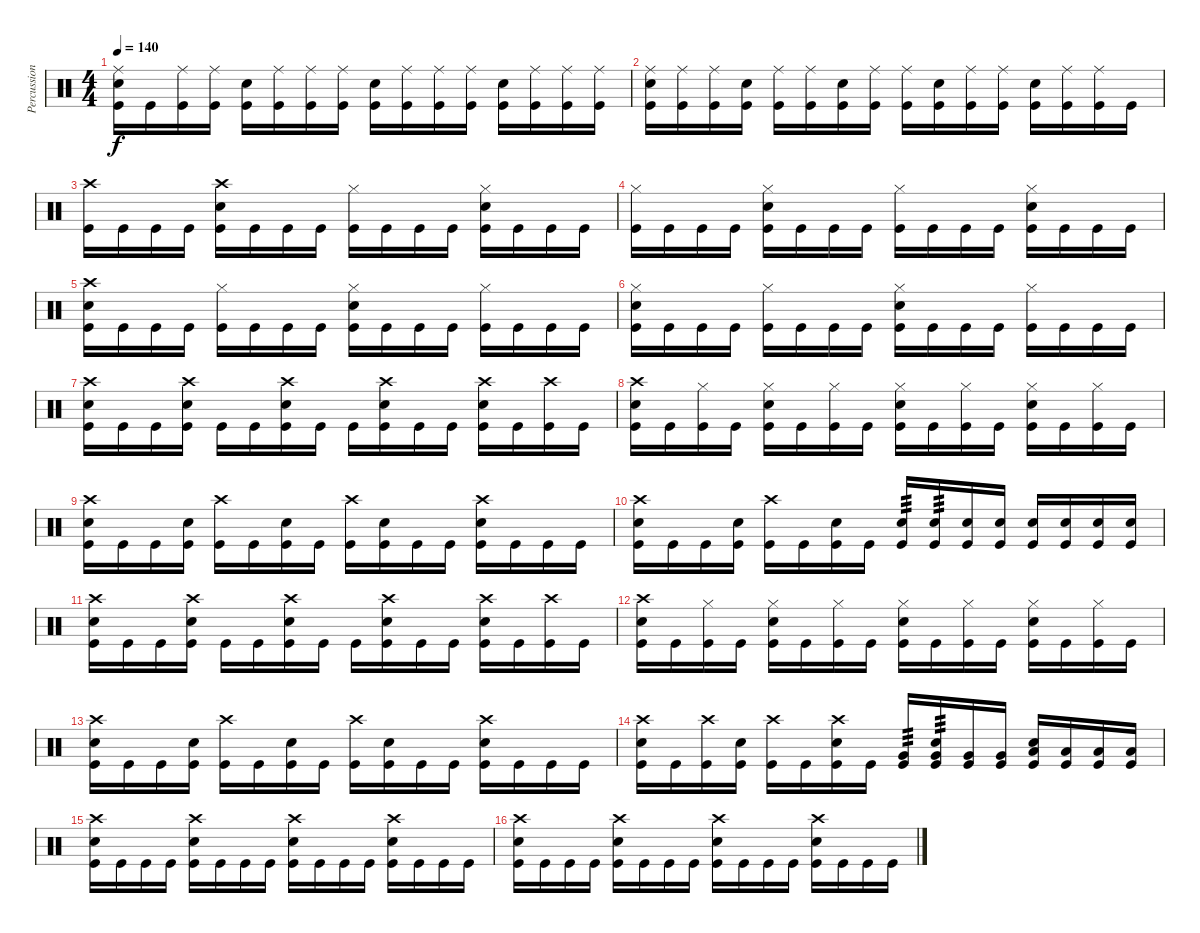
\track ("Percussion" "Percussion") {instrument percussion}
\staff {score}
\articulation defaults
\ts (4 4)
\tempo 140
\clef neutral
\ks c
("Ride (middle)" "Electric Snare (hit)" "Kick (hit)").16{dy f} "Kick (hit)".16 ("Ride (middle)" "Kick (hit)").16 ("Ride (middle)" "Kick (hit)").16 ("Electric Snare (hit)" "Kick (hit)").16 ("Ride (middle)" "Kick (hit)").16 ("Ride (middle)" "Kick (hit)").16 ("Ride (middle)" "Kick (hit)").16 ("Electric Snare (hit)" "Kick (hit)").16 ("Ride (middle)" "Kick (hit)").16 ("Ride (middle)" "Kick (hit)").16 ("Ride (middle)" "Kick (hit)").16 ("Electric Snare (hit)" "Kick (hit)").16 ("Ride (middle)" "Kick (hit)").16 ("Ride (middle)" "Kick (hit)").16 ("Ride (middle)" "Kick (hit)").16 |
("Ride (middle)" "Electric Snare (hit)" "Kick (hit)").16 ("Ride (middle)" "Kick (hit)").16 ("Ride (middle)" "Kick (hit)").16 ("Electric Snare (hit)" "Kick (hit)").16 ("Ride (middle)" "Kick (hit)").16 ("Ride (middle)" "Kick (hit)").16 ("Electric Snare (hit)" "Kick (hit)").16 ("Ride (middle)" "Kick (hit)").16 ("Ride (middle)" "Kick (hit)").16 ("Electric Snare (hit)" "Kick (hit)").16 ("Ride (middle)" "Kick (hit)").16 ("Ride (middle)" "Kick (hit)").16 ("Electric Snare (hit)" "Kick (hit)").16 ("Ride (middle)" "Kick (hit)").16 ("Ride (middle)" "Kick (hit)").16 "Kick (hit)".16 |
("Crash high (hit)" "Kick (hit)").16 "Kick (hit)".16 "Kick (hit)".16 "Kick (hit)".16 ("Crash high (hit)" "Electric Snare (hit)" "Kick (hit)").16 "Kick (hit)".16 "Kick (hit)".16 "Kick (hit)".16 ("Hi-Hat (closed)" "Kick (hit)").16 "Kick (hit)".16 "Kick (hit)".16 "Kick (hit)".16 ("Hi-Hat (closed)" "Electric Snare (hit)" "Kick (hit)").16 "Kick (hit)".16 "Kick (hit)".16 "Kick (hit)".16 |
("Hi-Hat (closed)" "Kick (hit)").16 "Kick (hit)".16 "Kick (hit)".16 "Kick (hit)".16 ("Hi-Hat (closed)" "Electric Snare (hit)" "Kick (hit)").16 "Kick (hit)".16 "Kick (hit)".16 "Kick (hit)".16 ("Hi-Hat (closed)" "Kick (hit)").16 "Kick (hit)".16 "Kick (hit)".16 "Kick (hit)".16 ("Hi-Hat (closed)" "Electric Snare (hit)" "Kick (hit)").16 "Kick (hit)".16 "Kick (hit)".16 "Kick (hit)".16 |
("Crash high (hit)" "Electric Snare (hit)" "Kick (hit)").16 "Kick (hit)".16 "Kick (hit)".16 "Kick (hit)".16 ("Hi-Hat (closed)" "Kick (hit)").16 "Kick (hit)".16 "Kick (hit)".16 "Kick (hit)".16 ("Hi-Hat (closed)" "Electric Snare (hit)" "Kick (hit)").16 "Kick (hit)".16 "Kick (hit)".16 "Kick (hit)".16 ("Hi-Hat (closed)" "Kick (hit)").16 "Kick (hit)".16 "Kick (hit)".16 "Kick (hit)".16 |
("Hi-Hat (closed)" "Electric Snare (hit)" "Kick (hit)").16 "Kick (hit)".16 "Kick (hit)".16 "Kick (hit)".16 ("Hi-Hat (closed)" "Kick (hit)").16 "Kick (hit)".16 "Kick (hit)".16 "Kick (hit)".16 ("Hi-Hat (closed)" "Electric Snare (hit)" "Kick (hit)").16 "Kick (hit)".16 "Kick (hit)".16 "Kick (hit)".16 ("Hi-Hat (closed)" "Kick (hit)").16 "Kick (hit)".16 "Kick (hit)".16 "Kick (hit)".16 |
("Crash high (hit)" "Electric Snare (hit)" "Kick (hit)").16 "Kick (hit)".16 "Kick (hit)".16 ("Crash high (hit)" "Electric Snare (hit)" "Kick (hit)").16 "Kick (hit)".16 "Kick (hit)".16 ("Crash high (hit)" "Electric Snare (hit)" "Kick (hit)").16 "Kick (hit)".16 "Kick (hit)".16 ("Crash high (hit)" "Electric Snare (hit)" "Kick (hit)").16 "Kick (hit)".16 "Kick (hit)".16 ("Crash high (hit)" "Electric Snare (hit)" "Kick (hit)").16 "Kick (hit)".16 ("Crash high (hit)" "Kick (hit)").16 "Kick (hit)".16 |
("Crash high (hit)" "Electric Snare (hit)" "Kick (hit)").16 "Kick (hit)".16 ("Hi-Hat (closed)" "Kick (hit)").16 "Kick (hit)".16 ("Hi-Hat (closed)" "Electric Snare (hit)" "Kick (hit)").16 "Kick (hit)".16 ("Hi-Hat (closed)" "Kick (hit)").16 "Kick (hit)".16 ("Hi-Hat (closed)" "Electric Snare (hit)" "Kick (hit)").16 "Kick (hit)".16 ("Hi-Hat (closed)" "Kick (hit)").16 "Kick (hit)".16 ("Hi-Hat (closed)" "Electric Snare (hit)" "Kick (hit)").16 "Kick (hit)".16 ("Hi-Hat (closed)" "Kick (hit)").16 "Kick (hit)".16 |
("Crash high (hit)" "Electric Snare (hit)" "Kick (hit)").16 "Kick (hit)".16 "Kick (hit)".16 ("Electric Snare (hit)" "Kick (hit)").16 ("Crash high (hit)" "Kick (hit)").16 "Kick (hit)".16 ("Electric Snare (hit)" "Kick (hit)").16 "Kick (hit)".16 ("Crash high (hit)" "Kick (hit)").16 ("Electric Snare (hit)" "Kick (hit)").16 "Kick (hit)".16 "Kick (hit)".16 ("Crash high (hit)" "Electric Snare (hit)" "Kick (hit)").16 "Kick (hit)".16 "Kick (hit)".16 "Kick (hit)".16 |
("Crash high (hit)" "Electric Snare (hit)" "Kick (hit)").16 "Kick (hit)".16 "Kick (hit)".16 ("Electric Snare (hit)" "Kick (hit)").16 ("Crash high (hit)" "Kick (hit)").16 "Kick (hit)".16 ("Electric Snare (hit)" "Kick (hit)").16 "Kick (hit)".16 ("Electric Snare (hit)" "Kick (hit)").16{tp 3} ("Electric Snare (hit)" "Kick (hit)").16{tp 3} ("Electric Snare (hit)" "Kick (hit)").16 ("Electric Snare (hit)" "Kick (hit)").16 ("Electric Snare (hit)" "Kick (hit)").16 ("Electric Snare (hit)" "Kick (hit)").16 ("Electric Snare (hit)" "Kick (hit)").16 ("Electric Snare (hit)" "Kick (hit)").16 |
("Crash high (hit)" "Electric Snare (hit)" "Kick (hit)").16 "Kick (hit)".16 "Kick (hit)".16 ("Crash high (hit)" "Electric Snare (hit)" "Kick (hit)").16 "Kick (hit)".16 "Kick (hit)".16 ("Crash high (hit)" "Electric Snare (hit)" "Kick (hit)").16 "Kick (hit)".16 "Kick (hit)".16 ("Crash high (hit)" "Electric Snare (hit)" "Kick (hit)").16 "Kick (hit)".16 "Kick (hit)".16 ("Crash high (hit)" "Electric Snare (hit)" "Kick (hit)").16 "Kick (hit)".16 ("Crash high (hit)" "Kick (hit)").16 "Kick (hit)".16 |
("Crash high (hit)" "Electric Snare (hit)" "Kick (hit)").16 "Kick (hit)".16 ("Hi-Hat (closed)" "Kick (hit)").16 "Kick (hit)".16 ("Hi-Hat (closed)" "Electric Snare (hit)" "Kick (hit)").16 "Kick (hit)".16 ("Hi-Hat (closed)" "Kick (hit)").16 "Kick (hit)".16 ("Hi-Hat (closed)" "Electric Snare (hit)" "Kick (hit)").16 "Kick (hit)".16 ("Hi-Hat (closed)" "Kick (hit)").16 "Kick (hit)".16 ("Hi-Hat (closed)" "Electric Snare (hit)" "Kick (hit)").16 "Kick (hit)".16 ("Hi-Hat (closed)" "Kick (hit)").16 "Kick (hit)".16 |
("Crash high (hit)" "Electric Snare (hit)" "Kick (hit)").16 "Kick (hit)".16 "Kick (hit)".16 ("Electric Snare (hit)" "Kick (hit)").16 ("Crash high (hit)" "Kick (hit)").16 "Kick (hit)".16 ("Electric Snare (hit)" "Kick (hit)").16 "Kick (hit)".16 ("Crash high (hit)" "Kick (hit)").16 ("Electric Snare (hit)" "Kick (hit)").16 "Kick (hit)".16 "Kick (hit)".16 ("Crash high (hit)" "Electric Snare (hit)" "Kick (hit)").16 "Kick (hit)".16 "Kick (hit)".16 "Kick (hit)".16 |
("Crash high (hit)" "Electric Snare (hit)" "Kick (hit)").16 "Kick (hit)".16 ("Crash high (hit)" "Kick (hit)").16 ("Electric Snare (hit)" "Kick (hit)").16 ("Crash high (hit)" "Kick (hit)").16 "Kick (hit)".16 ("Crash high (hit)" "Electric Snare (hit)" "Kick (hit)").16 "Kick (hit)".16 ("Very Low Tom (hit)" "Kick (hit)").16{tp 3} ("Electric Snare (hit)" "Very Low Tom (hit)" "Kick (hit)").16{tp 3} ("Very Low Tom (hit)" "Kick (hit)").16 ("Very Low Tom (hit)" "Kick (hit)").16 ("Electric Snare (hit)" "Low Floor Tom (hit)" "Kick (hit)").16 ("Low Floor Tom (hit)" "Kick (hit)").16 ("Low Floor Tom (hit)" "Kick (hit)").16 ("Low Floor Tom (hit)" "Kick (hit)").16 |
("Crash high (hit)" "Electric Snare (hit)" "Kick (hit)").16 "Kick (hit)".16 "Kick (hit)".16 "Kick (hit)".16 ("Crash high (hit)" "Electric Snare (hit)" "Kick (hit)").16 "Kick (hit)".16 "Kick (hit)".16 "Kick (hit)".16 ("Crash high (hit)" "Electric Snare (hit)" "Kick (hit)").16 "Kick (hit)".16 "Kick (hit)".16 "Kick (hit)".16 ("Crash high (hit)" "Electric Snare (hit)" "Kick (hit)").16 "Kick (hit)".16 "Kick (hit)".16 "Kick (hit)".16 |
("Crash high (hit)" "Electric Snare (hit)" "Kick (hit)").16 "Kick (hit)".16 "Kick (hit)".16 "Kick (hit)".16 ("Crash high (hit)" "Electric Snare (hit)" "Kick (hit)").16 "Kick (hit)".16 "Kick (hit)".16 "Kick (hit)".16 ("Crash high (hit)" "Electric Snare (hit)" "Kick (hit)").16 "Kick (hit)".16 "Kick (hit)".16 "Kick (hit)".16 ("Crash high (hit)" "Electric Snare (hit)" "Kick (hit)").16 "Kick (hit)".16 "Kick (hit)".16 "Kick (hit)".16
